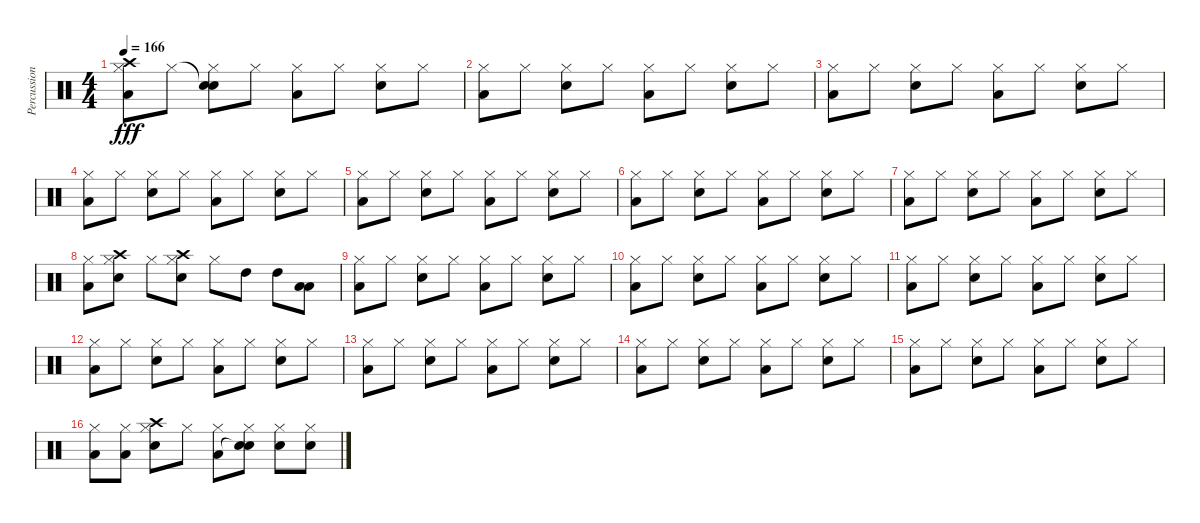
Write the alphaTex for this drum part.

\track ("Percussions" "Percussion") {instrument percussion}
\staff {score}
\articulation defaults
\ts (4 4)
\tempo 166
\clef neutral
\ks c
("Crash high (hit)" "Low Tom (hit)" "Hi-Hat (closed)").8{dy fff} "Hi-Hat (closed)".8 ("Snare (hit)"{t} "Snare (hit) 2" "Hi-Hat (closed)").8 "Hi-Hat (closed)".8 ("Low Tom (hit)" "Hi-Hat (closed)").8 "Hi-Hat (closed)".8 ("Snare (hit) 2" "Hi-Hat (closed)").8 "Hi-Hat (closed)".8 |
("Low Tom (hit)" "Hi-Hat (closed)").8 "Hi-Hat (closed)".8 ("Snare (hit) 2" "Hi-Hat (closed)").8 "Hi-Hat (closed)".8 ("Low Tom (hit)" "Hi-Hat (closed)").8 "Hi-Hat (closed)".8 ("Snare (hit) 2" "Hi-Hat (closed)").8 "Hi-Hat (closed)".8 |
("Low Tom (hit)" "Hi-Hat (closed)").8 "Hi-Hat (closed)".8 ("Snare (hit) 2" "Hi-Hat (closed)").8 "Hi-Hat (closed)".8 ("Low Tom (hit)" "Hi-Hat (closed)").8 "Hi-Hat (closed)".8 ("Snare (hit) 2" "Hi-Hat (closed)").8 "Hi-Hat (closed)".8 |
("Low Tom (hit)" "Hi-Hat (closed)").8 "Hi-Hat (closed)".8 ("Snare (hit) 2" "Hi-Hat (closed)").8 "Hi-Hat (closed)".8 ("Low Tom (hit)" "Hi-Hat (closed)").8 "Hi-Hat (closed)".8 ("Snare (hit) 2" "Hi-Hat (closed)").8 "Hi-Hat (closed)".8 |
("Low Tom (hit)" "Hi-Hat (closed)").8 "Hi-Hat (closed)".8 ("Snare (hit) 2" "Hi-Hat (closed)").8 "Hi-Hat (closed)".8 ("Low Tom (hit)" "Hi-Hat (closed)").8 "Hi-Hat (closed)".8 ("Snare (hit) 2" "Hi-Hat (closed)").8 "Hi-Hat (closed)".8 |
("Low Tom (hit)" "Hi-Hat (closed)").8 "Hi-Hat (closed)".8 ("Snare (hit) 2" "Hi-Hat (closed)").8 "Hi-Hat (closed)".8 ("Low Tom (hit)" "Hi-Hat (closed)").8 "Hi-Hat (closed)".8 ("Snare (hit) 2" "Hi-Hat (closed)").8 "Hi-Hat (closed)".8 |
("Low Tom (hit)" "Hi-Hat (closed)").8 "Hi-Hat (closed)".8 ("Snare (hit) 2" "Hi-Hat (closed)").8 "Hi-Hat (closed)".8 ("Low Tom (hit)" "Hi-Hat (closed)").8 "Hi-Hat (closed)".8 ("Snare (hit) 2" "Hi-Hat (closed)").8 "Hi-Hat (closed)".8 |
("Low Tom (hit)" "Hi-Hat (closed)").8 ("Crash high (hit)" "Snare (hit) 2" "Hi-Hat (closed)").8 "Hi-Hat (closed)".8 ("Crash high (hit)" "Snare (hit) 2" "Hi-Hat (closed)").8 "Hi-Hat (closed)".8 "High Tom (hit)".8 "High Tom (hit)".8 ("Low Tom (hit)" "Low Tom (hit)").8 |
("Low Tom (hit)" "Hi-Hat (closed)").8 "Hi-Hat (closed)".8 ("Snare (hit) 2" "Hi-Hat (closed)").8 "Hi-Hat (closed)".8 ("Low Tom (hit)" "Hi-Hat (closed)").8 "Hi-Hat (closed)".8 ("Snare (hit) 2" "Hi-Hat (closed)").8 "Hi-Hat (closed)".8 |
("Low Tom (hit)" "Hi-Hat (closed)").8 "Hi-Hat (closed)".8 ("Snare (hit) 2" "Hi-Hat (closed)").8 "Hi-Hat (closed)".8 ("Low Tom (hit)" "Hi-Hat (closed)").8 "Hi-Hat (closed)".8 ("Snare (hit) 2" "Hi-Hat (closed)").8 "Hi-Hat (closed)".8 |
("Low Tom (hit)" "Hi-Hat (closed)").8 "Hi-Hat (closed)".8 ("Snare (hit) 2" "Hi-Hat (closed)").8 "Hi-Hat (closed)".8 ("Low Tom (hit)" "Hi-Hat (closed)").8 "Hi-Hat (closed)".8 ("Snare (hit) 2" "Hi-Hat (closed)").8 "Hi-Hat (closed)".8 |
("Low Tom (hit)" "Hi-Hat (closed)").8 "Hi-Hat (closed)".8 ("Snare (hit) 2" "Hi-Hat (closed)").8 "Hi-Hat (closed)".8 ("Low Tom (hit)" "Hi-Hat (closed)").8 "Hi-Hat (closed)".8 ("Snare (hit) 2" "Hi-Hat (closed)").8 "Hi-Hat (closed)".8 |
("Low Tom (hit)" "Hi-Hat (closed)").8 "Hi-Hat (closed)".8 ("Snare (hit) 2" "Hi-Hat (closed)").8 "Hi-Hat (closed)".8 ("Low Tom (hit)" "Hi-Hat (closed)").8 "Hi-Hat (closed)".8 ("Snare (hit) 2" "Hi-Hat (closed)").8 "Hi-Hat (closed)".8 |
("Low Tom (hit)" "Hi-Hat (closed)").8 "Hi-Hat (closed)".8 ("Snare (hit) 2" "Hi-Hat (closed)").8 "Hi-Hat (closed)".8 ("Low Tom (hit)" "Hi-Hat (closed)").8 "Hi-Hat (closed)".8 ("Snare (hit) 2" "Hi-Hat (closed)").8 "Hi-Hat (closed)".8 |
("Low Tom (hit)" "Hi-Hat (closed)").8 "Hi-Hat (closed)".8 ("Snare (hit) 2" "Hi-Hat (closed)").8 "Hi-Hat (closed)".8 ("Low Tom (hit)" "Hi-Hat (closed)").8 "Hi-Hat (closed)".8 ("Snare (hit) 2" "Hi-Hat (closed)").8 "Hi-Hat (closed)".8 |
("Low Tom (hit)" "Hi-Hat (closed)").8 ("Low Tom (hit)" "Hi-Hat (closed)").8 ("Crash high (hit)" "Snare (hit) 2" "Hi-Hat (closed)").8 "Hi-Hat (closed)".8 ("Low Tom (hit)" "Hi-Hat (closed)").8 ("Snare (hit)"{t} "Snare (hit) 2" "Hi-Hat (closed)").8 ("Snare (hit) 2" "Hi-Hat (closed)").8 ("Snare (hit) 2" "Hi-Hat (closed)").8
